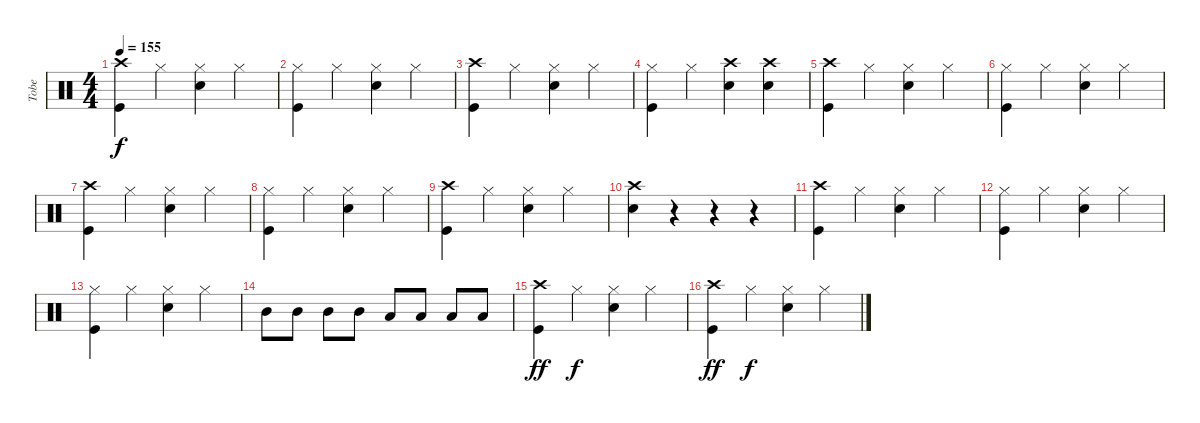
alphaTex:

\track ("Tobe" "Tobe") {instrument percussion}
\staff {score}
\articulation defaults
\ts (4 4)
\tempo 155
\clef neutral
\ks c
("Crash high (hit)" "Kick (hit)").4{dy f} "Hi-Hat (closed)".4 ("Hi-Hat (closed)" "Electric Snare (hit)").4 "Hi-Hat (closed)".4 |
("Hi-Hat (closed)" "Kick (hit)").4 "Hi-Hat (closed)".4 ("Hi-Hat (closed)" "Electric Snare (hit)").4 "Hi-Hat (closed)".4 |
("Crash high (hit)" "Kick (hit)").4 "Hi-Hat (closed)".4 ("Hi-Hat (closed)" "Electric Snare (hit)").4 "Hi-Hat (closed)".4 |
("Hi-Hat (closed)" "Kick (hit)").4 "Hi-Hat (closed)".4 ("Crash high (hit)" "Electric Snare (hit)").4 ("Crash high (hit)" "Electric Snare (hit)").4 |
("Crash high (hit)" "Kick (hit)").4 "Hi-Hat (closed)".4 ("Hi-Hat (closed)" "Electric Snare (hit)").4 "Hi-Hat (closed)".4 |
("Hi-Hat (closed)" "Kick (hit)").4 "Hi-Hat (closed)".4 ("Hi-Hat (closed)" "Electric Snare (hit)").4 "Hi-Hat (closed)".4 |
("Crash high (hit)" "Kick (hit)").4 "Hi-Hat (closed)".4 ("Hi-Hat (closed)" "Electric Snare (hit)").4 "Hi-Hat (closed)".4 |
("Hi-Hat (closed)" "Kick (hit)").4 "Hi-Hat (closed)".4 ("Hi-Hat (closed)" "Electric Snare (hit)").4 "Hi-Hat (closed)".4 |
("Crash high (hit)" "Kick (hit)").4 "Hi-Hat (closed)".4 ("Hi-Hat (closed)" "Electric Snare (hit)").4 "Hi-Hat (closed)".4 |
("Crash high (hit)" "Electric Snare (hit)").4 r.4 r.4 r.4 |
("Crash high (hit)" "Kick (hit)").4 "Hi-Hat (closed)".4 ("Hi-Hat (closed)" "Electric Snare (hit)").4 "Hi-Hat (closed)".4 |
("Hi-Hat (closed)" "Kick (hit)").4 "Hi-Hat (closed)".4 ("Hi-Hat (closed)" "Electric Snare (hit)").4 "Hi-Hat (closed)".4 |
("Hi-Hat (closed)" "Kick (hit)").4 "Hi-Hat (closed)".4 ("Hi-Hat (closed)" "Electric Snare (hit)").4 "Hi-Hat (closed)".4 |
"Mid Tom (hit)".8 "Mid Tom (hit)".8 "Mid Tom (hit)".8 "Mid Tom (hit)".8 "Low Tom (hit)".8 "Low Tom (hit)".8 "Low Tom (hit)".8 "Low Tom (hit)".8 |
("Crash high (hit)" "Kick (hit)").4{dy ff} "Hi-Hat (closed)".4{dy f} ("Hi-Hat (closed)" "Electric Snare (hit)").4 "Hi-Hat (closed)".4 |
("Crash high (hit)" "Kick (hit)").4{dy ff} "Hi-Hat (closed)".4{dy f} ("Hi-Hat (closed)" "Electric Snare (hit)").4 "Hi-Hat (closed)".4
